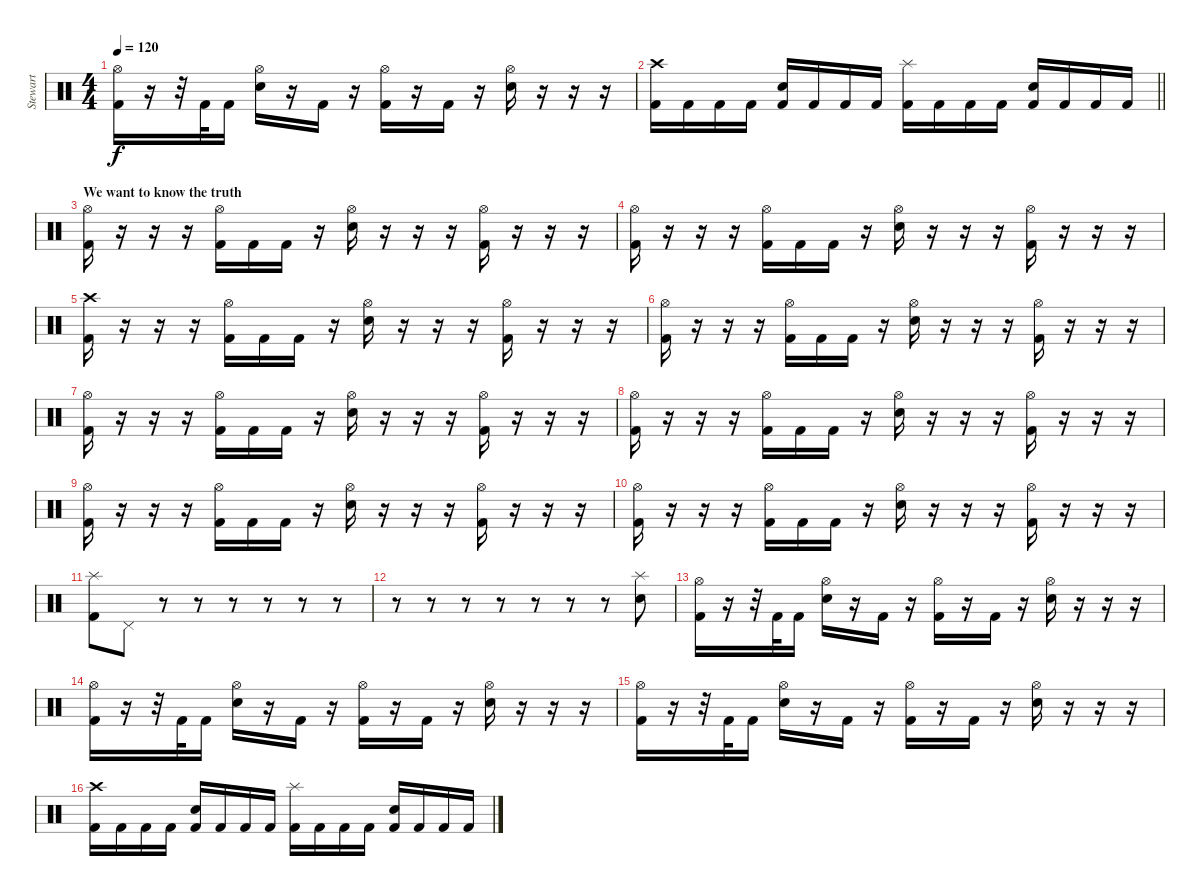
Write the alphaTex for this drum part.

\track ("Stewart" "Stewart") {instrument percussion}
\staff {score}
\articulation defaults
\ts (4 4)
\tempo 120
\clef neutral
\ks c
("Hi-Hat (open)" "Kick (hit) 2").16{dy f} r.16 r.32 "Kick (hit) 2".32 "Kick (hit) 2".16 ("Hi-Hat (open)" "Electric Snare (hit)").16 r.16 "Kick (hit) 2".16 r.16 ("Hi-Hat (open)" "Kick (hit) 2").16 r.16 "Kick (hit) 2".16 r.16 ("Hi-Hat (open)" "Electric Snare (hit)").16 r.16 r.16 r.16 |
\barLineRight lightlight
("Crash high (hit)" "Kick (hit) 2").16 "Kick (hit) 2".16 "Kick (hit) 2".16 "Kick (hit) 2".16 ("Kick (hit) 2" "Electric Snare (hit)").16 "Kick (hit) 2".16 "Kick (hit) 2".16 "Kick (hit) 2".16 ("Splash (hit)" "Kick (hit) 2").16 "Kick (hit) 2".16 "Kick (hit) 2".16 "Kick (hit) 2".16 ("Kick (hit) 2" "Electric Snare (hit)").16 "Kick (hit) 2".16 "Kick (hit) 2".16 "Kick (hit) 2".16 |
\section ("" "We want to know the truth")
("Hi-Hat (open)" "Kick (hit) 2").16 r.16 r.16 r.16 ("Hi-Hat (open)" "Kick (hit) 2").16 "Kick (hit) 2".16 "Kick (hit) 2".16 r.16 ("Hi-Hat (open)" "Electric Snare (hit)").16 r.16 r.16 r.16 ("Hi-Hat (open)" "Kick (hit) 2").16 r.16 r.16 r.16 |
("Hi-Hat (open)" "Kick (hit) 2").16 r.16 r.16 r.16 ("Hi-Hat (open)" "Kick (hit) 2").16 "Kick (hit) 2".16 "Kick (hit) 2".16 r.16 ("Hi-Hat (open)" "Electric Snare (hit)").16 r.16 r.16 r.16 ("Hi-Hat (open)" "Kick (hit) 2").16 r.16 r.16 r.16 |
("Crash high (hit)" "Kick (hit) 2").16 r.16 r.16 r.16 ("Hi-Hat (open)" "Kick (hit) 2").16 "Kick (hit) 2".16 "Kick (hit) 2".16 r.16 ("Hi-Hat (open)" "Electric Snare (hit)").16 r.16 r.16 r.16 ("Hi-Hat (open)" "Kick (hit) 2").16 r.16 r.16 r.16 |
("Hi-Hat (open)" "Kick (hit) 2").16 r.16 r.16 r.16 ("Hi-Hat (open)" "Kick (hit) 2").16 "Kick (hit) 2".16 "Kick (hit) 2".16 r.16 ("Hi-Hat (open)" "Electric Snare (hit)").16 r.16 r.16 r.16 ("Hi-Hat (open)" "Kick (hit) 2").16 r.16 r.16 r.16 |
("Hi-Hat (open)" "Kick (hit) 2").16 r.16 r.16 r.16 ("Hi-Hat (open)" "Kick (hit) 2").16 "Kick (hit) 2".16 "Kick (hit) 2".16 r.16 ("Hi-Hat (open)" "Electric Snare (hit)").16 r.16 r.16 r.16 ("Hi-Hat (open)" "Kick (hit) 2").16 r.16 r.16 r.16 |
("Hi-Hat (open)" "Kick (hit) 2").16 r.16 r.16 r.16 ("Hi-Hat (open)" "Kick (hit) 2").16 "Kick (hit) 2".16 "Kick (hit) 2".16 r.16 ("Hi-Hat (open)" "Electric Snare (hit)").16 r.16 r.16 r.16 ("Hi-Hat (open)" "Kick (hit) 2").16 r.16 r.16 r.16 |
("Hi-Hat (open)" "Kick (hit) 2").16 r.16 r.16 r.16 ("Hi-Hat (open)" "Kick (hit) 2").16 "Kick (hit) 2".16 "Kick (hit) 2".16 r.16 ("Hi-Hat (open)" "Electric Snare (hit)").16 r.16 r.16 r.16 ("Hi-Hat (open)" "Kick (hit) 2").16 r.16 r.16 r.16 |
("Hi-Hat (open)" "Kick (hit) 2").16 r.16 r.16 r.16 ("Hi-Hat (open)" "Kick (hit) 2").16 "Kick (hit) 2".16 "Kick (hit) 2".16 r.16 ("Hi-Hat (open)" "Electric Snare (hit)").16 r.16 r.16 r.16 ("Hi-Hat (open)" "Kick (hit) 2").16 r.16 r.16 r.16 |
("Kick (hit) 2" "Splash (hit)").8 "Pedal Hi-Hat (hit)".8 r.8 r.8 r.8 r.8 r.8 r.8 |
r.8 r.8 r.8 r.8 r.8 r.8 r.8 ("Electric Snare (hit)" "Splash (hit)").8 |
("Hi-Hat (open)" "Kick (hit) 2").16 r.16 r.32 "Kick (hit) 2".32 "Kick (hit) 2".16 ("Hi-Hat (open)" "Electric Snare (hit)").16 r.16 "Kick (hit) 2".16 r.16 ("Hi-Hat (open)" "Kick (hit) 2").16 r.16 "Kick (hit) 2".16 r.16 ("Hi-Hat (open)" "Electric Snare (hit)").16 r.16 r.16 r.16 |
("Hi-Hat (open)" "Kick (hit) 2").16 r.16 r.32 "Kick (hit) 2".32 "Kick (hit) 2".16 ("Hi-Hat (open)" "Electric Snare (hit)").16 r.16 "Kick (hit) 2".16 r.16 ("Hi-Hat (open)" "Kick (hit) 2").16 r.16 "Kick (hit) 2".16 r.16 ("Hi-Hat (open)" "Electric Snare (hit)").16 r.16 r.16 r.16 |
("Hi-Hat (open)" "Kick (hit) 2").16 r.16 r.32 "Kick (hit) 2".32 "Kick (hit) 2".16 ("Hi-Hat (open)" "Electric Snare (hit)").16 r.16 "Kick (hit) 2".16 r.16 ("Hi-Hat (open)" "Kick (hit) 2").16 r.16 "Kick (hit) 2".16 r.16 ("Hi-Hat (open)" "Electric Snare (hit)").16 r.16 r.16 r.16 |
("Crash high (hit)" "Kick (hit) 2").16 "Kick (hit) 2".16 "Kick (hit) 2".16 "Kick (hit) 2".16 ("Kick (hit) 2" "Electric Snare (hit)").16 "Kick (hit) 2".16 "Kick (hit) 2".16 "Kick (hit) 2".16 ("Splash (hit)" "Kick (hit) 2").16 "Kick (hit) 2".16 "Kick (hit) 2".16 "Kick (hit) 2".16 ("Kick (hit) 2" "Electric Snare (hit)").16 "Kick (hit) 2".16 "Kick (hit) 2".16 "Kick (hit) 2".16
